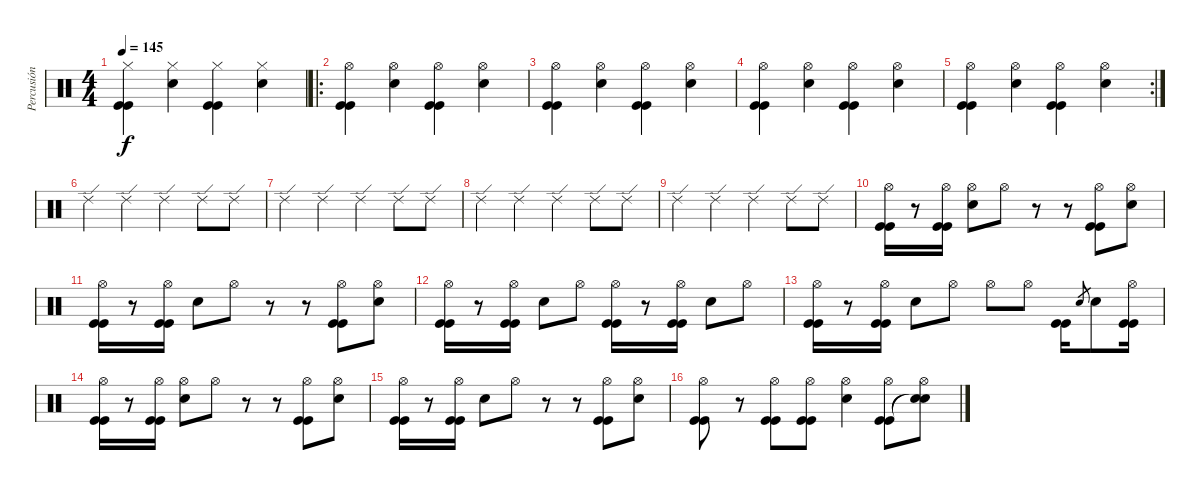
\track ("Percusión" "Percusión") {instrument percussion}
\staff {score}
\articulation defaults
\ts (4 4)
\tempo 145
\clef neutral
\ks c
("Hi-Hat (closed)" "Kick (hit)" "Kick (hit)").4{dy f} ("Hi-Hat (closed)" "Electric Snare (hit)").4 ("Hi-Hat (closed)" "Kick (hit)" "Kick (hit)").4 ("Hi-Hat (closed)" "Electric Snare (hit)").4 |
\ro
("Hi-Hat (open)" "Kick (hit)" "Kick (hit)").4 ("Hi-Hat (open)" "Electric Snare (hit)").4 ("Hi-Hat (open)" "Kick (hit)" "Kick (hit)").4 ("Hi-Hat (open)" "Electric Snare (hit)").4 |
("Hi-Hat (open)" "Kick (hit)" "Kick (hit)").4 ("Hi-Hat (open)" "Electric Snare (hit)").4 ("Hi-Hat (open)" "Kick (hit)" "Kick (hit)").4 ("Hi-Hat (open)" "Electric Snare (hit)").4 |
("Hi-Hat (open)" "Kick (hit)" "Kick (hit)").4 ("Hi-Hat (open)" "Electric Snare (hit)").4 ("Hi-Hat (open)" "Kick (hit)" "Kick (hit)").4 ("Hi-Hat (open)" "Electric Snare (hit)").4 |
\rc 2
("Hi-Hat (open)" "Kick (hit)" "Kick (hit)").4 ("Hi-Hat (open)" "Electric Snare (hit)").4 ("Hi-Hat (open)" "Kick (hit)" "Kick (hit)").4 ("Hi-Hat (open)" "Electric Snare (hit)").4 |
"Ride (edge) 2".4 "Ride (edge) 2".4 "Ride (edge) 2".4 "Ride (edge) 2".8 "Ride (edge) 2".8 |
"Ride (edge) 2".4 "Ride (edge) 2".4 "Ride (edge) 2".4 "Ride (edge) 2".8 "Ride (edge) 2".8 |
"Ride (edge) 2".4 "Ride (edge) 2".4 "Ride (edge) 2".4 "Ride (edge) 2".8 "Ride (edge) 2".8 |
"Ride (edge) 2".4 "Ride (edge) 2".4 "Ride (edge) 2".4 "Ride (edge) 2".8 "Ride (edge) 2".8 |
("Hi-Hat (open)" "Kick (hit)" "Kick (hit)").16 r.8 ("Hi-Hat (open)" "Kick (hit)" "Kick (hit)").16 ("Hi-Hat (open)" "Electric Snare (hit)").8 "Hi-Hat (open)".8 r.8 r.8 ("Hi-Hat (open)" "Kick (hit)" "Kick (hit)").8 ("Hi-Hat (open)" "Electric Snare (hit)").8 |
("Hi-Hat (open)" "Kick (hit)" "Kick (hit)").16 r.8 ("Hi-Hat (open)" "Kick (hit)" "Kick (hit)").16 "Electric Snare (hit)".8 "Hi-Hat (open)".8 r.8 r.8 ("Hi-Hat (open)" "Kick (hit)" "Kick (hit)").8 ("Hi-Hat (open)" "Electric Snare (hit)").8 |
("Hi-Hat (open)" "Kick (hit)" "Kick (hit)").16 r.8 ("Hi-Hat (open)" "Kick (hit)" "Kick (hit)").16 "Electric Snare (hit)".8 "Hi-Hat (open)".8 ("Hi-Hat (open)" "Kick (hit)" "Kick (hit)").16 r.8 ("Hi-Hat (open)" "Kick (hit)" "Kick (hit)").16 "Electric Snare (hit)".8 "Hi-Hat (open)".8 |
("Hi-Hat (open)" "Kick (hit)" "Kick (hit)").16 r.8 ("Hi-Hat (open)" "Kick (hit)" "Kick (hit)").16 "Electric Snare (hit)".8 "Hi-Hat (open)".8 "Hi-Hat (open)".8 "Hi-Hat (open)".8 ("Kick (hit)" "Kick (hit)").16 "Electric Snare (hit)".8{gr} "Electric Snare (hit)".8 ("Hi-Hat (open)" "Kick (hit)" "Kick (hit)").16 |
("Hi-Hat (open)" "Kick (hit)" "Kick (hit)").16 r.8 ("Hi-Hat (open)" "Kick (hit)" "Kick (hit)").16 ("Hi-Hat (open)" "Electric Snare (hit)").8 "Hi-Hat (open)".8 r.8 r.8 ("Hi-Hat (open)" "Kick (hit)" "Kick (hit)").8 ("Hi-Hat (open)" "Electric Snare (hit)").8 |
("Hi-Hat (open)" "Kick (hit)" "Kick (hit)").16 r.8 ("Hi-Hat (open)" "Kick (hit)" "Kick (hit)").16 "Electric Snare (hit)".8 "Hi-Hat (open)".8 r.8 r.8 ("Hi-Hat (open)" "Kick (hit)" "Kick (hit)").8 ("Hi-Hat (open)" "Electric Snare (hit)").8 |
("Hi-Hat (open)" "Kick (hit)" "Kick (hit)").8 r.8 ("Hi-Hat (open)" "Kick (hit)" "Kick (hit)").8 ("Hi-Hat (open)" "Kick (hit)" "Kick (hit)").8 ("Hi-Hat (open)" "Electric Snare (hit)").4 ("Hi-Hat (open)" "Kick (hit)" "Kick (hit)").8 ("Hi-Hat (open)" "Snare (hit)"{t} "Snare (hit)"{t}).8
